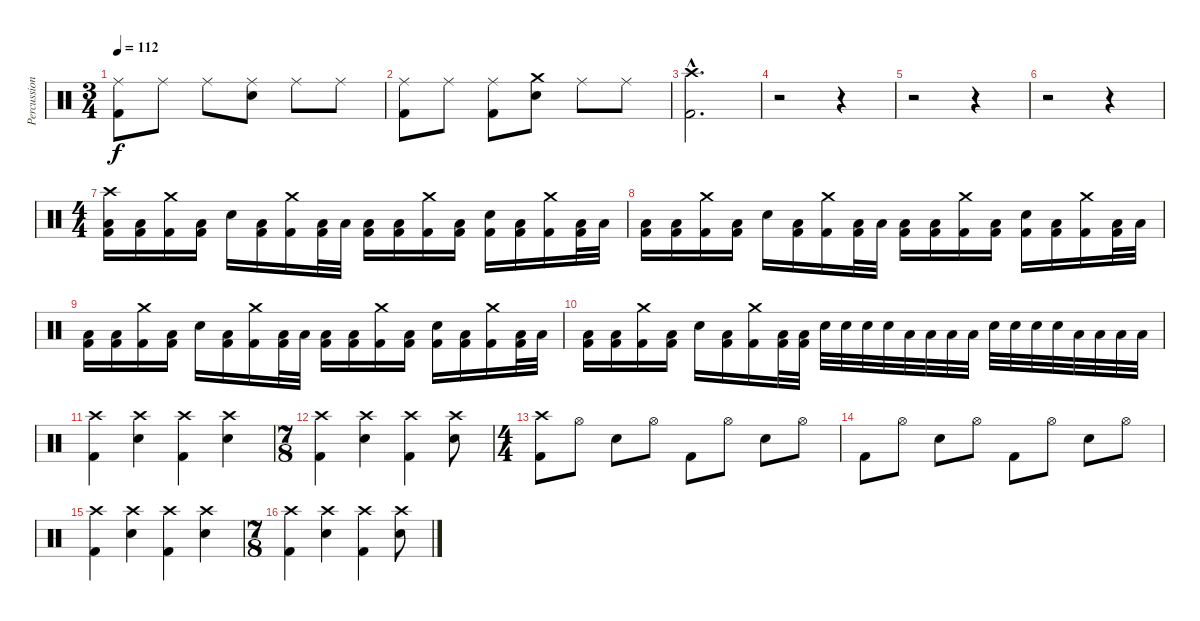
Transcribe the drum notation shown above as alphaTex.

\track ("Percussion" "Percussion") {instrument percussion}
\staff {score}
\articulation defaults
\ts (3 4)
\tempo 112
\clef neutral
\ks c
("Ride (middle)" "Kick (hit) 2").8{dy f} "Ride (middle)".8 "Ride (middle)".8 ("Ride (middle)" "Snare (hit) 2").8 "Ride (middle)".8 "Ride (middle)".8 |
("Ride (middle)" "Kick (hit) 2").8 "Ride (middle)".8 ("Ride (middle)" "Kick (hit) 2").8 ("Crash medium (hit)" "Snare (hit) 2").8 "Ride (middle)".8 "Ride (middle)".8 |
("Crash high (hit)"{hac} "Kick (hit) 2"{hac}).2{d} |
r.2 r.4 |
r.2 r.4 |
r.2 r.4 |
\ts (4 4)
("Crash high (hit)" "Low Tom (hit)" "Kick (hit) 2").16 ("Low Tom (hit)" "Kick (hit) 2").16 ("Crash medium (hit)" "Kick (hit) 2").16 ("Low Tom (hit)" "Kick (hit) 2").16 "Snare (hit) 2".16 ("Low Tom (hit)" "Kick (hit) 2").16 ("Crash medium (hit)" "Kick (hit) 2").16 ("Low Tom (hit)" "Kick (hit) 2").32 "Low Tom (hit)".32 ("Low Tom (hit)" "Kick (hit) 2").16 ("Low Tom (hit)" "Kick (hit) 2").16 ("Crash medium (hit)" "Kick (hit) 2").16 ("Low Tom (hit)" "Kick (hit) 2").16 ("Snare (hit) 2" "Kick (hit) 2").16 ("Low Tom (hit)" "Kick (hit) 2").16 ("Crash medium (hit)" "Kick (hit) 2").16 ("Low Tom (hit)" "Kick (hit) 2").32 "Low Tom (hit)".32 |
("Low Tom (hit)" "Kick (hit) 2").16 ("Low Tom (hit)" "Kick (hit) 2").16 ("Crash medium (hit)" "Kick (hit) 2").16 ("Low Tom (hit)" "Kick (hit) 2").16 "Snare (hit) 2".16 ("Low Tom (hit)" "Kick (hit) 2").16 ("Crash medium (hit)" "Kick (hit) 2").16 ("Low Tom (hit)" "Kick (hit) 2").32 "Low Tom (hit)".32 ("Low Tom (hit)" "Kick (hit) 2").16 ("Low Tom (hit)" "Kick (hit) 2").16 ("Crash medium (hit)" "Kick (hit) 2").16 ("Low Tom (hit)" "Kick (hit) 2").16 ("Snare (hit) 2" "Kick (hit) 2").16 ("Low Tom (hit)" "Kick (hit) 2").16 ("Crash medium (hit)" "Kick (hit) 2").16 ("Low Tom (hit)" "Kick (hit) 2").32 "Low Tom (hit)".32 |
("Low Tom (hit)" "Kick (hit) 2").16 ("Low Tom (hit)" "Kick (hit) 2").16 ("Crash medium (hit)" "Kick (hit) 2").16 ("Low Tom (hit)" "Kick (hit) 2").16 "Snare (hit) 2".16 ("Low Tom (hit)" "Kick (hit) 2").16 ("Crash medium (hit)" "Kick (hit) 2").16 ("Low Tom (hit)" "Kick (hit) 2").32 "Low Tom (hit)".32 ("Low Tom (hit)" "Kick (hit) 2").16 ("Low Tom (hit)" "Kick (hit) 2").16 ("Crash medium (hit)" "Kick (hit) 2").16 ("Low Tom (hit)" "Kick (hit) 2").16 ("Snare (hit) 2" "Kick (hit) 2").16 ("Low Tom (hit)" "Kick (hit) 2").16 ("Crash medium (hit)" "Kick (hit) 2").16 ("Low Tom (hit)" "Kick (hit) 2").32 "Low Tom (hit)".32 |
("Low Tom (hit)" "Kick (hit) 2").16 ("Low Tom (hit)" "Kick (hit) 2").16 ("Crash medium (hit)" "Kick (hit) 2").16 ("Low Tom (hit)" "Kick (hit) 2").16 "Snare (hit) 2".16 ("Low Tom (hit)" "Kick (hit) 2").16 ("Crash medium (hit)" "Kick (hit) 2").16 ("Low Tom (hit)" "Kick (hit) 2").32 ("Low Tom (hit)" "Kick (hit) 2").32 "Electric Snare (hit)".32 "Electric Snare (hit)".32 "Electric Snare (hit)".32 "Electric Snare (hit)".32 "Low Tom (hit)".32 "Low Tom (hit)".32 "Low Tom (hit)".32 "Low Tom (hit)".32 "Electric Snare (hit)".32 "Electric Snare (hit)".32 "Electric Snare (hit)".32 "Electric Snare (hit)".32 "Low Tom (hit)".32 "Low Tom (hit)".32 "Low Tom (hit)".32 "Low Tom (hit)".32 |
("Crash high (hit)" "Kick (hit) 2").4 ("Crash high (hit)" "Snare (hit) 2").4 ("Crash high (hit)" "Kick (hit) 2").4 ("Crash high (hit)" "Snare (hit) 2").4 |
\ts (7 8)
("Crash high (hit)" "Kick (hit) 2").4 ("Crash high (hit)" "Snare (hit) 2").4 ("Crash high (hit)" "Kick (hit) 2").4 ("Crash high (hit)" "Snare (hit) 2").8 |
\ts (4 4)
("Crash high (hit)" "Kick (hit) 2").8 "Hi-Hat (open)".8 "Snare (hit) 2".8 "Hi-Hat (open)".8 "Kick (hit) 2".8 "Hi-Hat (open)".8 "Snare (hit) 2".8 "Hi-Hat (open)".8 |
"Kick (hit) 2".8 "Hi-Hat (open)".8 "Snare (hit) 2".8 "Hi-Hat (open)".8 "Kick (hit) 2".8 "Hi-Hat (open)".8 "Snare (hit) 2".8 "Hi-Hat (open)".8 |
("Crash high (hit)" "Kick (hit) 2").4 ("Crash high (hit)" "Snare (hit) 2").4 ("Crash high (hit)" "Kick (hit) 2").4 ("Crash high (hit)" "Snare (hit) 2").4 |
\ts (7 8)
("Crash high (hit)" "Kick (hit) 2").4 ("Crash high (hit)" "Snare (hit) 2").4 ("Crash high (hit)" "Kick (hit) 2").4 ("Crash high (hit)" "Snare (hit) 2").8
